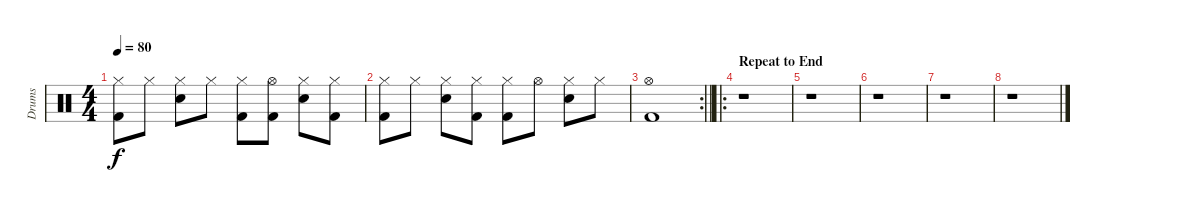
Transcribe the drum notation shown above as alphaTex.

\track ("Drums" "Drums") {instrument percussion}
\staff {score}
\articulation defaults
\ts (4 4)
\tempo 80
\clef neutral
\ks c
("Hi-Hat (closed)" "Kick (hit) 2").8{dy f} "Hi-Hat (closed)".8 ("Hi-Hat (closed)" "Snare (hit) 2").8 "Hi-Hat (closed)".8 ("Hi-Hat (closed)" "Kick (hit) 2").8 ("Hi-Hat (open)" "Kick (hit) 2").8 ("Hi-Hat (closed)" "Snare (hit) 2").8 ("Hi-Hat (closed)" "Kick (hit) 2").8 |
("Hi-Hat (closed)" "Kick (hit) 2").8 "Hi-Hat (closed)".8 ("Hi-Hat (closed)" "Snare (hit) 2").8 ("Hi-Hat (closed)" "Kick (hit) 2").8 ("Hi-Hat (closed)" "Kick (hit) 2").8 "Hi-Hat (open)".8 ("Hi-Hat (closed)" "Snare (hit) 2").8 "Hi-Hat (closed)".8 |
\rc 2
\barLineRight lightlight
("Hi-Hat (open)" "Kick (hit) 2").1 |
\ro
\section ("" "Repeat to End")
r.1 |
r.1 |
r.1 |
r.1 |
r.1
